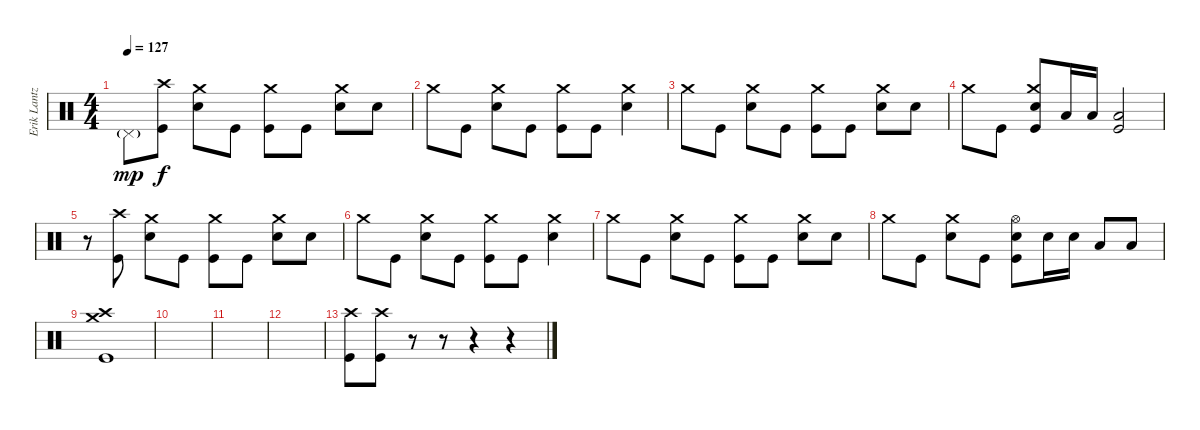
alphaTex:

\track ("Erik Lantz" "Erik Lantz") {instrument percussion}
\staff {score}
\articulation defaults
\ts (4 4)
\tempo 127
\clef neutral
\ks c "Pedal Hi-Hat (hit)"{g}.8{dy mp}
("Crash high (hit)" "Kick (hit)").8{dy f} ("Crash medium (hit)" "Electric Snare (hit)").8 "Kick (hit)".8 ("Crash medium (hit)" "Kick (hit)").8 "Kick (hit)".8 ("Crash medium (hit)" "Electric Snare (hit)").8 "Electric Snare (hit)".8 |
"Crash medium (hit)".8 "Kick (hit)".8 ("Crash medium (hit)" "Electric Snare (hit)").8 "Kick (hit)".8 ("Crash medium (hit)" "Kick (hit)").8 "Kick (hit)".8 ("Crash medium (hit)" "Electric Snare (hit)").4 |
"Crash medium (hit)".8 "Kick (hit)".8 ("Crash medium (hit)" "Electric Snare (hit)").8 "Kick (hit)".8 ("Crash medium (hit)" "Kick (hit)").8 "Kick (hit)".8 ("Crash medium (hit)" "Electric Snare (hit)").8 "Electric Snare (hit)".8 |
"Crash medium (hit)".8 "Kick (hit)".8 ("Crash medium (hit)" "Electric Snare (hit)" "Kick (hit)").8 "Low Tom (hit)".16 "Low Tom (hit)".16 ("Low Floor Tom (hit)" "Kick (hit)").2 |
r.8 ("Crash high (hit)" "Kick (hit)").8 ("Crash medium (hit)" "Electric Snare (hit)").8 "Kick (hit)".8 ("Crash medium (hit)" "Kick (hit)").8 "Kick (hit)".8 ("Crash medium (hit)" "Electric Snare (hit)").8 "Electric Snare (hit)".8 |
"Crash medium (hit)".8 "Kick (hit)".8 ("Crash medium (hit)" "Electric Snare (hit)").8 "Kick (hit)".8 ("Crash medium (hit)" "Kick (hit)").8 "Kick (hit)".8 ("Crash medium (hit)" "Electric Snare (hit)").4 |
"Crash medium (hit)".8 "Kick (hit)".8 ("Crash medium (hit)" "Electric Snare (hit)").8 "Kick (hit)".8 ("Crash medium (hit)" "Kick (hit)").8 "Kick (hit)".8 ("Crash medium (hit)" "Electric Snare (hit)").8 "Electric Snare (hit)".8 |
"Crash medium (hit)".8 "Kick (hit)".8 ("Crash medium (hit)" "Electric Snare (hit)").8 "Kick (hit)".8 ("Hi-Hat (open)" "Electric Snare (hit)" "Kick (hit)").8 "Electric Snare (hit)".16 "Electric Snare (hit)".16 "Low Tom (hit)".8 "Low Tom (hit)".8 |
("Crash high (hit)" "Crash medium (hit)" "Kick (hit)").1 |
|
|
|
("Crash high (hit)" "Kick (hit)").8 ("Crash high (hit)" "Kick (hit)").8 r.8{volume 0} r.8{volume 13} r.4 r.4
